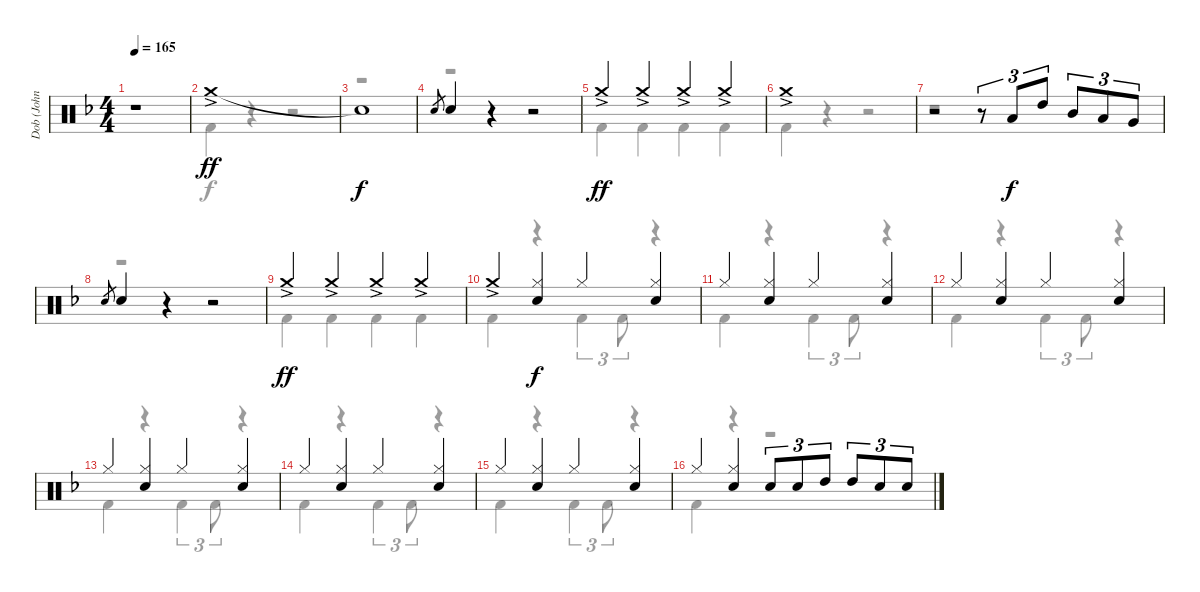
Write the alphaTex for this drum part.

\track ("Dob (John O’Reilly)" "Dob (John ") {instrument percussion}
\staff {score}
\articulation defaults
\voice
\ts (4 4)
\tempo 165
\clef neutral
\ks f
r.1{dy ff} |
"Crash medium (hit)"{ac}.1 |
"Snare (hit)"{t}.1{dy f} |
"Electric Snare (hit)".8{gr} "Electric Snare (hit)".4 r.4 r.2 |
"Crash medium (hit)"{ac}.4{dy ff} "Crash medium (hit)"{ac}.4 "Crash medium (hit)"{ac}.4 "Crash medium (hit)"{ac}.4 |
"Crash medium (hit)"{ac}.1 |
r.2 r.8{tu (3 2)} "Low Tom (hit)".8{tu (3 2) dy f} "High Tom (hit)".8{tu (3 2)} "Mid Tom (hit)".8{tu (3 2)} "Low Tom (hit)".8{tu (3 2)} "Very Low Tom (hit)".8{tu (3 2)} |
"Electric Snare (hit)".8{gr} "Electric Snare (hit)".4 r.4 r.2 |
"Crash medium (hit)"{ac}.4{dy ff} "Crash medium (hit)"{ac}.4 "Crash medium (hit)"{ac}.4 "Crash medium (hit)"{ac}.4 |
"Crash medium (hit)"{ac}.4 ("Hi-Hat (closed)" "Electric Snare (hit)").4{dy f} "Hi-Hat (closed)".4 ("Hi-Hat (closed)" "Electric Snare (hit)").4 |
"Hi-Hat (closed)".4 ("Hi-Hat (closed)" "Electric Snare (hit)").4 "Hi-Hat (closed)".4 ("Hi-Hat (closed)" "Electric Snare (hit)").4 |
"Hi-Hat (closed)".4 ("Hi-Hat (closed)" "Electric Snare (hit)").4 "Hi-Hat (closed)".4 ("Hi-Hat (closed)" "Electric Snare (hit)").4 |
"Hi-Hat (closed)".4 ("Hi-Hat (closed)" "Electric Snare (hit)").4 "Hi-Hat (closed)".4 ("Hi-Hat (closed)" "Electric Snare (hit)").4 |
"Hi-Hat (closed)".4 ("Hi-Hat (closed)" "Electric Snare (hit)").4 "Hi-Hat (closed)".4 ("Hi-Hat (closed)" "Electric Snare (hit)").4 |
"Hi-Hat (closed)".4 ("Hi-Hat (closed)" "Electric Snare (hit)").4 "Hi-Hat (closed)".4 ("Hi-Hat (closed)" "Electric Snare (hit)").4 |
"Hi-Hat (closed)".4 ("Hi-Hat (closed)" "Electric Snare (hit)").4 "Electric Snare (hit)".8{tu (3 2)} "Electric Snare (hit)".8{tu (3 2)} "High Tom (hit)".8{tu (3 2)} "High Tom (hit)".8{tu (3 2)} "Electric Snare (hit)".8{tu (3 2)} "Electric Snare (hit)".8{tu (3 2)}
\voice
\clef neutral
\ottava regular
\simile none
\ks f
r.1{dy f} |
"Kick (hit) 2".4 r.4 r.2 |
r.1 |
r.1 |
"Kick (hit) 2".4 "Kick (hit) 2".4 "Kick (hit) 2".4 "Kick (hit) 2".4 |
"Kick (hit) 2".4 r.4 r.2 |
r.1 |
r.1 |
"Kick (hit) 2".4 "Kick (hit) 2".4 "Kick (hit) 2".4 "Kick (hit) 2".4 |
"Kick (hit) 2".4 r.4 "Kick (hit) 2".4{tu (3 2)} "Kick (hit) 2".8{tu (3 2)} r.4 |
"Kick (hit) 2".4 r.4 "Kick (hit) 2".4{tu (3 2)} "Kick (hit) 2".8{tu (3 2)} r.4 |
"Kick (hit) 2".4 r.4 "Kick (hit) 2".4{tu (3 2)} "Kick (hit) 2".8{tu (3 2)} r.4 |
"Kick (hit) 2".4 r.4 "Kick (hit) 2".4{tu (3 2)} "Kick (hit) 2".8{tu (3 2)} r.4 |
"Kick (hit) 2".4 r.4 "Kick (hit) 2".4{tu (3 2)} "Kick (hit) 2".8{tu (3 2)} r.4 |
"Kick (hit) 2".4 r.4 "Kick (hit) 2".4{tu (3 2)} "Kick (hit) 2".8{tu (3 2)} r.4 |
"Kick (hit) 2".4 r.4 r.2
